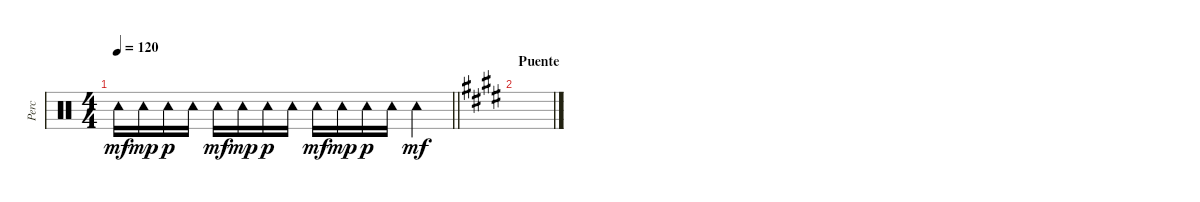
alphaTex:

\track ("Perc" "Perc") {instrument percussion}
\staff {score}
\articulation defaults
\ts (4 4)
\tempo 120
\clef neutral
\barLineRight lightlight
\ks c "Tambourine (hit)".16{dy mf} "Tambourine (hit)".16{dy mp} "Tambourine (hit)".16{dy p} "Tambourine (hit)".16 "Tambourine (hit)".16{dy mf} "Tambourine (hit)".16{dy mp} "Tambourine (hit)".16{dy p} "Tambourine (hit)".16 "Tambourine (hit)".16{dy mf} "Tambourine (hit)".16{dy mp} "Tambourine (hit)".16{dy p} "Tambourine (hit)".16 "Tambourine (hit)".4{dy mf}
|
\section ("" "Puente")
\ks e
